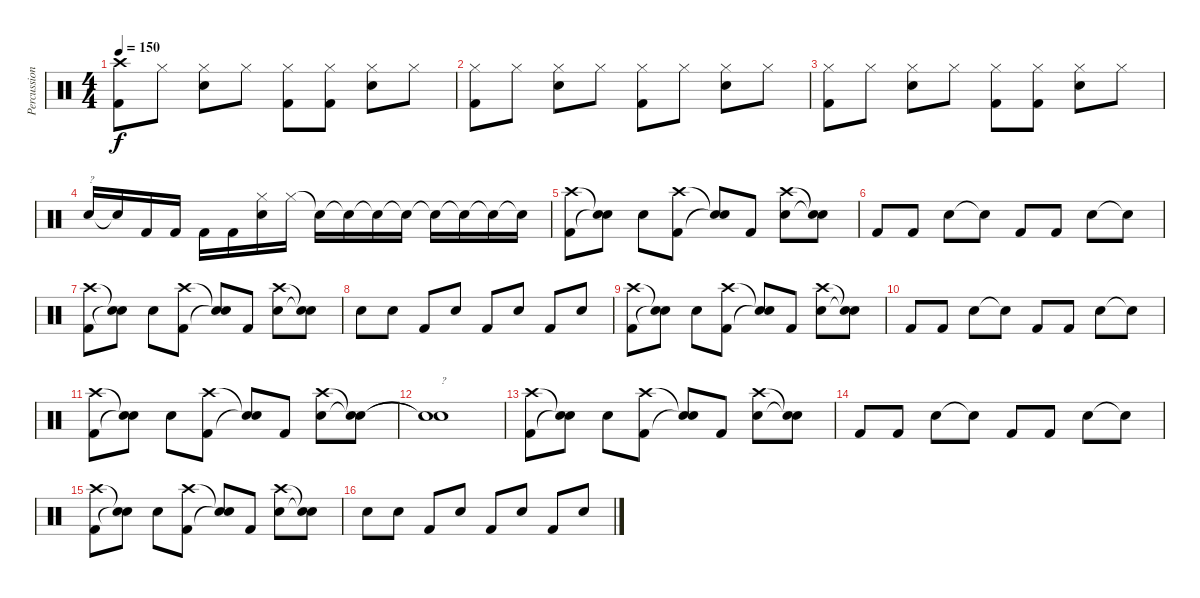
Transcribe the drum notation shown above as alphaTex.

\track ("Percussion" "Percussion") {instrument percussion}
\staff {score}
\articulation defaults
\ts (4 4)
\tempo 150
\clef neutral
\ks c
("Kick (hit) 2" "Crash high (hit)").8{dy f} "Hi-Hat (closed)".8 ("Snare (hit) 2" "Hi-Hat (closed)").8 "Hi-Hat (closed)".8 ("Kick (hit) 2" "Hi-Hat (closed)").8 ("Kick (hit) 2" "Hi-Hat (closed)").8 ("Snare (hit) 2" "Hi-Hat (closed)").8 "Hi-Hat (closed)".8 |
("Kick (hit) 2" "Hi-Hat (closed)").8 "Hi-Hat (closed)".8 ("Snare (hit) 2" "Hi-Hat (closed)").8 "Hi-Hat (closed)".8 ("Kick (hit) 2" "Hi-Hat (closed)").8 "Hi-Hat (closed)".8 ("Snare (hit) 2" "Hi-Hat (closed)").8 "Hi-Hat (closed)".8 |
("Kick (hit) 2" "Hi-Hat (closed)").8 "Hi-Hat (closed)".8 ("Snare (hit) 2" "Hi-Hat (closed)").8 "Hi-Hat (closed)".8 ("Kick (hit) 2" "Hi-Hat (closed)").8 ("Kick (hit) 2" "Hi-Hat (closed)").8 ("Snare (hit) 2" "Hi-Hat (closed)").8 "Hi-Hat (closed)".8 |
"Snare (hit) 2".16{txt "?"} "Snare (hit)"{t}.16 "Kick (hit) 2".16 "Kick (hit) 2".16 "Kick (hit) 2".16 "Kick (hit) 2".16 ("Snare (hit) 2" "Hi-Hat (closed)").16 "Hi-Hat (closed)".16 "Snare (hit)"{t}.16 "Snare (hit)"{t}.16 "Snare (hit)"{t}.16 "Snare (hit)"{t}.16 "Snare (hit)"{t}.16 "Snare (hit)"{t}.16 "Snare (hit)"{t}.16 "Snare (hit)"{t}.16 |
("Kick (hit) 2" "Crash high (hit)").8 ("Snare (hit)"{t} "Snare (hit)"{t}).8 "Snare (hit) 2".8 ("Kick (hit) 2" "Crash high (hit)").8 ("Snare (hit)"{t} "Snare (hit)"{t}).8 "Kick (hit) 2".8 ("Snare (hit) 2" "Crash high (hit)").8 ("Snare (hit)"{t} "Snare (hit)"{t}).8 |
"Kick (hit) 2".8 "Kick (hit) 2".8 "Snare (hit) 2".8 "Snare (hit)"{t}.8 "Kick (hit) 2".8 "Kick (hit) 2".8 "Snare (hit) 2".8 "Snare (hit)"{t}.8 |
("Kick (hit) 2" "Crash high (hit)").8 ("Snare (hit)"{t} "Snare (hit)"{t}).8 "Snare (hit) 2".8 ("Kick (hit) 2" "Crash high (hit)").8 ("Snare (hit)"{t} "Snare (hit)"{t}).8 "Kick (hit) 2".8 ("Snare (hit) 2" "Crash high (hit)").8 ("Snare (hit)"{t} "Snare (hit)"{t}).8 |
"Snare (hit) 2".8 "Snare (hit) 2".8 "Kick (hit) 2".8 "Snare (hit) 2".8 "Kick (hit) 2".8 "Snare (hit) 2".8 "Kick (hit) 2".8 "Snare (hit) 2".8 |
("Kick (hit) 2" "Crash high (hit)").8 ("Snare (hit)"{t} "Snare (hit)"{t}).8 "Snare (hit) 2".8 ("Kick (hit) 2" "Crash high (hit)").8 ("Snare (hit)"{t} "Snare (hit)"{t}).8 "Kick (hit) 2".8 ("Snare (hit) 2" "Crash high (hit)").8 ("Snare (hit)"{t} "Snare (hit)"{t}).8 |
"Kick (hit) 2".8 "Kick (hit) 2".8 "Snare (hit) 2".8 "Snare (hit)"{t}.8 "Kick (hit) 2".8 "Kick (hit) 2".8 "Snare (hit) 2".8 "Snare (hit)"{t}.8 |
("Kick (hit) 2" "Crash high (hit)").8 ("Snare (hit)"{t} "Snare (hit)"{t}).8 "Snare (hit) 2".8 ("Kick (hit) 2" "Crash high (hit)").8 ("Snare (hit)"{t} "Snare (hit)"{t}).8 "Kick (hit) 2".8 ("Snare (hit) 2" "Crash high (hit)").8 ("Snare (hit)"{t} "Snare (hit)"{t}).8 |
("Snare (hit)"{t} "Snare (hit)"{t}).1{txt "?"} |
("Kick (hit) 2" "Crash high (hit)").8 ("Snare (hit)"{t} "Snare (hit)"{t}).8 "Snare (hit) 2".8 ("Kick (hit) 2" "Crash high (hit)").8 ("Snare (hit)"{t} "Snare (hit)"{t}).8 "Kick (hit) 2".8 ("Snare (hit) 2" "Crash high (hit)").8 ("Snare (hit)"{t} "Snare (hit)"{t}).8 |
"Kick (hit) 2".8 "Kick (hit) 2".8 "Snare (hit) 2".8 "Snare (hit)"{t}.8 "Kick (hit) 2".8 "Kick (hit) 2".8 "Snare (hit) 2".8 "Snare (hit)"{t}.8 |
("Kick (hit) 2" "Crash high (hit)").8 ("Snare (hit)"{t} "Snare (hit)"{t}).8 "Snare (hit) 2".8 ("Kick (hit) 2" "Crash high (hit)").8 ("Snare (hit)"{t} "Snare (hit)"{t}).8 "Kick (hit) 2".8 ("Snare (hit) 2" "Crash high (hit)").8 ("Snare (hit)"{t} "Snare (hit)"{t}).8 |
"Snare (hit) 2".8 "Snare (hit) 2".8 "Kick (hit) 2".8 "Snare (hit) 2".8 "Kick (hit) 2".8 "Snare (hit) 2".8 "Kick (hit) 2".8 "Snare (hit) 2".8
